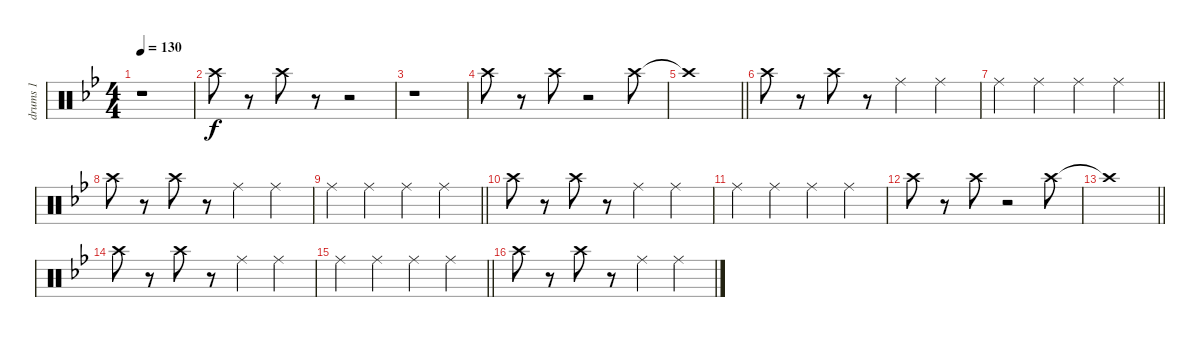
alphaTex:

\track ("drums 1" "drums 1") {instrument percussion}
\staff {score}
\articulation defaults
\ts (4 4)
\tempo 130
\clef neutral
\ks bb
r.1{dy f} |
"Crash high (hit)".8 r.8 "Crash high (hit)".8 r.8 r.2 |
r.1 |
"Crash high (hit)".8 r.8 "Crash high (hit)".8 r.2 "Crash high (hit)".8 |
\barLineRight lightlight "Crash high (hit)"{t}.1
|
"Crash high (hit)".8 r.8 "Crash high (hit)".8 r.8 "Ride (middle)".4 "Ride (middle)".4 |
\barLineRight lightlight "Ride (middle)".4 "Ride (middle)".4 "Ride (middle)".4 "Ride (middle)".4
|
"Crash high (hit)".8 r.8 "Crash high (hit)".8 r.8 "Ride (middle)".4 "Ride (middle)".4 |
\barLineRight lightlight "Ride (middle)".4 "Ride (middle)".4 "Ride (middle)".4 "Ride (middle)".4
|
"Crash high (hit)".8 r.8 "Crash high (hit)".8 r.8 "Ride (middle)".4 "Ride (middle)".4 |
"Ride (middle)".4 "Ride (middle)".4 "Ride (middle)".4 "Ride (middle)".4 |
"Crash high (hit)".8 r.8 "Crash high (hit)".8 r.2 "Crash high (hit)".8 |
\barLineRight lightlight "Crash high (hit)"{t}.1
|
"Crash high (hit)".8 r.8 "Crash high (hit)".8 r.8 "Ride (middle)".4 "Ride (middle)".4 |
\barLineRight lightlight "Ride (middle)".4 "Ride (middle)".4 "Ride (middle)".4 "Ride (middle)".4
|
"Crash high (hit)".8 r.8 "Crash high (hit)".8 r.8 "Ride (middle)".4 "Ride (middle)".4
